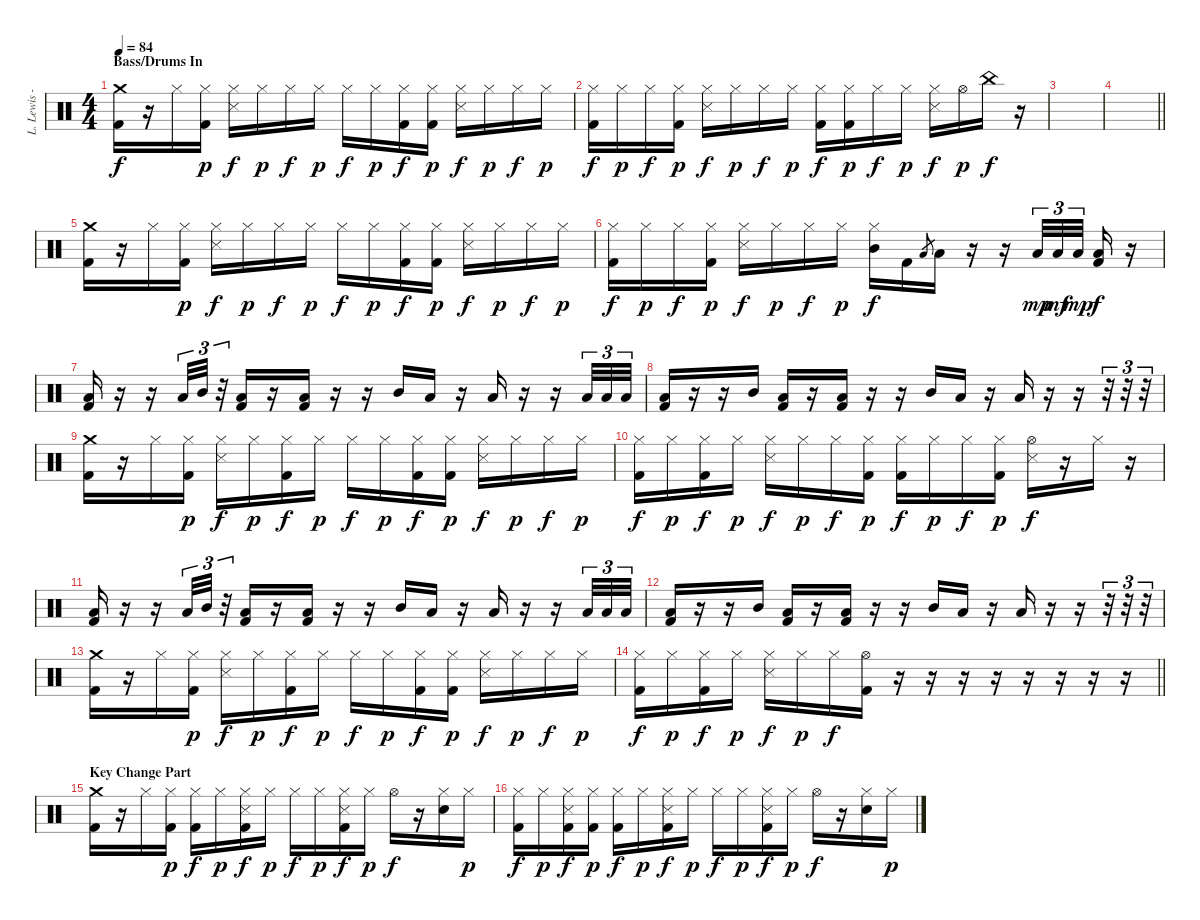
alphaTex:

\track ("L. Lewis - Drums" "L. Lewis -") {instrument percussion}
\staff {score}
\articulation defaults
\ts (4 4)
\section ("" "Bass/Drums In")
\tempo 84
\clef neutral
\ks c
("Crash medium (hit)" "Kick (hit) 2").16{dy f} r.16 "Hi-Hat (closed)".16 ("Hi-Hat (closed)" "Kick (hit) 2").16{dy p} ("Hi-Hat (closed)" "Snare (side stick) 3").16{dy f} "Hi-Hat (closed)".16{dy p} "Hi-Hat (closed)".16{dy f} "Hi-Hat (closed)".16{dy p} "Hi-Hat (closed)".16{dy f} "Hi-Hat (closed)".16{dy p} ("Hi-Hat (closed)" "Kick (hit) 2").16{dy f} ("Hi-Hat (closed)" "Kick (hit) 2").16{dy p} ("Hi-Hat (closed)" "Snare (side stick) 3").16{dy f} "Hi-Hat (closed)".16{dy p} "Hi-Hat (closed)".16{dy f} "Hi-Hat (closed)".16{dy p} |
("Hi-Hat (closed)" "Kick (hit) 2").16{dy f} "Hi-Hat (closed)".16{dy p} "Hi-Hat (closed)".16{dy f} ("Hi-Hat (closed)" "Kick (hit) 2").16{dy p} ("Hi-Hat (closed)" "Snare (side stick) 3").16{dy f} "Hi-Hat (closed)".16{dy p} "Hi-Hat (closed)".16{dy f} "Hi-Hat (closed)".16{dy p} ("Hi-Hat (closed)" "Kick (hit) 2").16{dy f} ("Hi-Hat (closed)" "Kick (hit) 2").16{dy p} "Hi-Hat (closed)".16{dy f} "Hi-Hat (closed)".16{dy p} ("Hi-Hat (closed)" "Snare (side stick) 3").16{dy f} "Hi-Hat (open)".16{dy p} "China (hit)".16{dy f} r.16 |
|
\barLineRight lightlight
|
("Crash medium (hit)" "Kick (hit) 2").16 r.16 "Hi-Hat (closed)".16 ("Hi-Hat (closed)" "Kick (hit) 2").16{dy p} ("Hi-Hat (closed)" "Snare (side stick) 3").16{dy f} "Hi-Hat (closed)".16{dy p} "Hi-Hat (closed)".16{dy f} "Hi-Hat (closed)".16{dy p} "Hi-Hat (closed)".16{dy f} "Hi-Hat (closed)".16{dy p} ("Hi-Hat (closed)" "Kick (hit) 2").16{dy f} ("Hi-Hat (closed)" "Kick (hit) 2").16{dy p} ("Hi-Hat (closed)" "Snare (side stick) 3").16{dy f} "Hi-Hat (closed)".16{dy p} "Hi-Hat (closed)".16{dy f} "Hi-Hat (closed)".16{dy p} |
("Hi-Hat (closed)" "Kick (hit) 2").16{dy f} "Hi-Hat (closed)".16{dy p} "Hi-Hat (closed)".16{dy f} ("Hi-Hat (closed)" "Kick (hit) 2").16{dy p} ("Hi-Hat (closed)" "Snare (side stick) 3").16{dy f} "Hi-Hat (closed)".16{dy p} "Hi-Hat (closed)".16{dy f} "Hi-Hat (closed)".16{dy p} ("Hi-Hat (closed)" "Mid Tom (hit)").16{dy f} "Kick (hit) 2".16 "Low Tom (hit)".8{gr} "Low Tom (hit)".16 r.16 r.16 "Low Tom (hit)".32{tu (3 2) dy mp} "Low Tom (hit)".32{tu (3 2) dy mf} "Low Tom (hit)".32{tu (3 2) dy mp beam splitsecondary} ("Low Tom (hit)" "Kick (hit) 2").16{dy f} r.16 |
("Low Tom (hit)" "Kick (hit) 2").16 r.16 r.16 "Low Tom (hit)".32{tu (3 2)} "Mid Tom (hit)".32{tu (3 2)} r.32{tu (3 2)} ("Low Tom (hit)" "Kick (hit) 2").16 r.16 ("Low Tom (hit)" "Kick (hit) 2").16 r.16 r.16 "Mid Tom (hit)".16 "Low Tom (hit)".16 r.16 "Low Tom (hit)".16 r.16 r.16 "Low Tom (hit)".32{tu (3 2)} "Low Tom (hit)".32{tu (3 2)} "Low Tom (hit)".32{tu (3 2)} |
("Low Tom (hit)" "Kick (hit) 2").16 r.16 r.16 "Mid Tom (hit)".16 ("Low Tom (hit)" "Kick (hit) 2").16 r.16 ("Low Tom (hit)" "Kick (hit) 2").16 r.16 r.16 "Mid Tom (hit)".16 "Low Tom (hit)".16 r.16 "Low Tom (hit)".16 r.16 r.16 r.32{tu (3 2)} r.32{tu (3 2)} r.32{tu (3 2)} |
("Crash medium (hit)" "Kick (hit) 2").16 r.16 "Hi-Hat (closed)".16 ("Hi-Hat (closed)" "Kick (hit) 2").16{dy p} ("Hi-Hat (closed)" "Snare (side stick) 3").16{dy f} "Hi-Hat (closed)".16{dy p} ("Hi-Hat (closed)" "Kick (hit) 2").16{dy f} "Hi-Hat (closed)".16{dy p} "Hi-Hat (closed)".16{dy f} "Hi-Hat (closed)".16{dy p} ("Hi-Hat (closed)" "Kick (hit) 2").16{dy f} ("Hi-Hat (closed)" "Kick (hit) 2").16{dy p} ("Hi-Hat (closed)" "Snare (side stick) 3").16{dy f} "Hi-Hat (closed)".16{dy p} "Hi-Hat (closed)".16{dy f} "Hi-Hat (closed)".16{dy p} |
("Hi-Hat (closed)" "Kick (hit) 2").16{dy f} "Hi-Hat (closed)".16{dy p} ("Hi-Hat (closed)" "Kick (hit) 2").16{dy f} "Hi-Hat (closed)".16{dy p} ("Hi-Hat (closed)" "Snare (side stick) 3").16{dy f} "Hi-Hat (closed)".16{dy p} "Hi-Hat (closed)".16{dy f} ("Hi-Hat (closed)" "Kick (hit) 2").16{dy p} ("Hi-Hat (closed)" "Kick (hit) 2").16{dy f} "Hi-Hat (closed)".16{dy p} "Hi-Hat (closed)".16{dy f} ("Hi-Hat (closed)" "Kick (hit) 2").16{dy p} ("Hi-Hat (open)" "Snare (side stick) 3").16{dy f} r.16 "Hi-Hat (closed)".16 r.16 |
("Low Tom (hit)" "Kick (hit) 2").16 r.16 r.16 "Low Tom (hit)".32{tu (3 2)} "Mid Tom (hit)".32{tu (3 2)} r.32{tu (3 2)} ("Low Tom (hit)" "Kick (hit) 2").16 r.16 ("Low Tom (hit)" "Kick (hit) 2").16 r.16 r.16 "Mid Tom (hit)".16 "Low Tom (hit)".16 r.16 "Low Tom (hit)".16 r.16 r.16 "Low Tom (hit)".32{tu (3 2)} "Low Tom (hit)".32{tu (3 2)} "Low Tom (hit)".32{tu (3 2)} |
("Low Tom (hit)" "Kick (hit) 2").16 r.16 r.16 "Mid Tom (hit)".16 ("Low Tom (hit)" "Kick (hit) 2").16 r.16 ("Low Tom (hit)" "Kick (hit) 2").16 r.16 r.16 "Mid Tom (hit)".16 "Low Tom (hit)".16 r.16 "Low Tom (hit)".16 r.16 r.16 r.32{tu (3 2)} r.32{tu (3 2)} r.32{tu (3 2)} |
("Crash medium (hit)" "Kick (hit) 2").16 r.16 "Hi-Hat (closed)".16 ("Hi-Hat (closed)" "Kick (hit) 2").16{dy p} ("Hi-Hat (closed)" "Snare (side stick) 3").16{dy f} "Hi-Hat (closed)".16{dy p} ("Hi-Hat (closed)" "Kick (hit) 2").16{dy f} "Hi-Hat (closed)".16{dy p} "Hi-Hat (closed)".16{dy f} "Hi-Hat (closed)".16{dy p} ("Hi-Hat (closed)" "Kick (hit) 2").16{dy f} ("Hi-Hat (closed)" "Kick (hit) 2").16{dy p} ("Hi-Hat (closed)" "Snare (side stick) 3").16{dy f} "Hi-Hat (closed)".16{dy p} "Hi-Hat (closed)".16{dy f} "Hi-Hat (closed)".16{dy p} |
\barLineRight lightlight
("Hi-Hat (closed)" "Kick (hit) 2").16{dy f} "Hi-Hat (closed)".16{dy p} ("Hi-Hat (closed)" "Kick (hit) 2").16{dy f} "Hi-Hat (closed)".16{dy p} ("Hi-Hat (closed)" "Snare (side stick) 3").16{dy f} "Hi-Hat (closed)".16{dy p} "Hi-Hat (closed)".16{dy f} ("Hi-Hat (open)" "Kick (hit) 2").16 r.16 r.16 r.16 r.16 r.16 r.16 r.16 r.16 |
\section ("" "Key Change Part")
("Crash medium (hit)" "Kick (hit) 2").16 r.16 "Hi-Hat (closed)".16 ("Hi-Hat (closed)" "Kick (hit) 2").16{dy p} ("Hi-Hat (closed)" "Kick (hit) 2").16{dy f} "Hi-Hat (closed)".16{dy p} ("Hi-Hat (closed)" "Snare (side stick) 3" "Kick (hit) 2").16{dy f} "Hi-Hat (closed)".16{dy p} "Hi-Hat (closed)".16{dy f} "Hi-Hat (closed)".16{dy p} ("Hi-Hat (closed)" "Snare (side stick) 3" "Kick (hit) 2").16{dy f} "Hi-Hat (closed)".16{dy p} "Hi-Hat (open)".16{dy f} r.16 ("Hi-Hat (closed)" "Electric Snare (hit)").16 "Hi-Hat (closed)".16{dy p} |
("Hi-Hat (closed)" "Kick (hit) 2").16{dy f} "Hi-Hat (closed)".16{dy p} ("Hi-Hat (closed)" "Snare (side stick) 3" "Kick (hit) 2").16{dy f} ("Hi-Hat (closed)" "Kick (hit) 2").16{dy p} ("Hi-Hat (closed)" "Kick (hit) 2").16{dy f} "Hi-Hat (closed)".16{dy p} ("Hi-Hat (closed)" "Snare (side stick) 3" "Kick (hit) 2").16{dy f} "Hi-Hat (closed)".16{dy p} "Hi-Hat (closed)".16{dy f} "Hi-Hat (closed)".16{dy p} ("Hi-Hat (closed)" "Snare (side stick) 3" "Kick (hit) 2").16{dy f} "Hi-Hat (closed)".16{dy p} "Hi-Hat (open)".16{dy f} r.16 ("Hi-Hat (closed)" "Electric Snare (hit)").16 "Hi-Hat (closed)".16{dy p}
